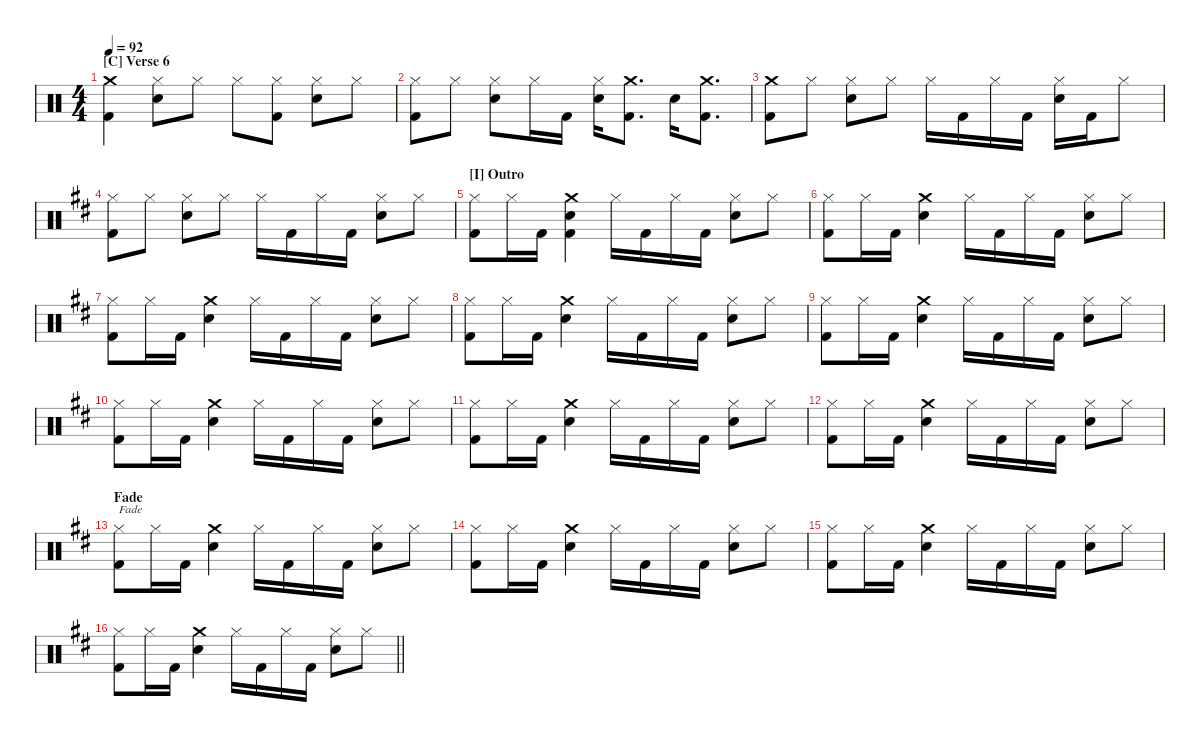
\hideDynamics
\bracketExtendMode nobrackets
\singleTrackTrackNamePolicy hidden
\multiTrackTrackNamePolicy hidden
\firstSystemTrackNameMode fullname
\firstSystemTrackNameOrientation horizontal
\otherSystemsTrackNameOrientation horizontal
\track ("Drumkit" "Drums") {instrument percussion}
\staff {score}
\articulation defaults
\ts (4 4)
\section ("C" "Verse 6")
\tempo 92
\clef neutral
\ks c
("Crash medium (hit)" "Kick (hit) 2").4{dy f beam Down} ("Hi-Hat (closed)" "Snare (hit) 2").8{beam Down} "Hi-Hat (closed)".8{beam Down} "Hi-Hat (closed)".8{beam Down} ("Hi-Hat (closed)" "Kick (hit) 2").8{beam Down} ("Hi-Hat (closed)" "Snare (hit) 2").8{beam Down} "Hi-Hat (closed)".8{beam Down} |
("Hi-Hat (closed)" "Kick (hit) 2").8{beam Down} "Hi-Hat (closed)".8{beam Down} ("Hi-Hat (closed)" "Snare (hit) 2").8{beam Down} "Hi-Hat (closed)".16{beam Down} "Kick (hit) 2".16{beam Down} ("Hi-Hat (closed)" "Snare (hit) 2").16{beam Down} ("Crash medium (hit)" "Kick (hit) 2").8{d beam Down} "Snare (hit) 2".16{beam Down} ("Crash medium (hit)" "Kick (hit) 2").8{d beam Down} |
("Crash medium (hit)" "Kick (hit) 2").8{beam Down} "Hi-Hat (closed)".8{beam Down} ("Hi-Hat (closed)" "Snare (hit) 2").8{beam Down} "Hi-Hat (closed)".8{beam Down} "Hi-Hat (closed)".16{beam Down} "Kick (hit) 2".16{beam Down} "Hi-Hat (closed)".16{beam Down} "Kick (hit) 2".16{beam Down} ("Hi-Hat (closed)" "Snare (hit) 2").16{beam Down} "Kick (hit) 2".16{beam Down} "Hi-Hat (closed)".8{beam Down} |
\ks d
("Hi-Hat (closed)"{acc forcenatural} "Kick (hit) 2"{acc forcenatural}).8{beam Down} "Hi-Hat (closed)"{acc forcenatural}.8{beam Down} ("Hi-Hat (closed)"{acc forcenatural} "Snare (hit) 2"{acc forcenatural}).8{beam Down} "Hi-Hat (closed)"{acc forcenatural}.8{beam Down} "Hi-Hat (closed)"{acc forcenatural}.16{beam Down} "Kick (hit) 2"{acc forcenatural}.16{beam Down} "Hi-Hat (closed)"{acc forcenatural}.16{beam Down} "Kick (hit) 2"{acc forcenatural}.16{beam Down} ("Hi-Hat (closed)"{acc forcenatural} "Snare (hit) 2"{acc forcenatural}).8{beam Down} "Hi-Hat (closed)"{acc forcenatural}.8{beam Down} |
\section ("I" "Outro")
("Hi-Hat (closed)"{acc forcenatural} "Kick (hit) 2"{acc forcenatural}).8{beam Down} "Hi-Hat (closed)"{acc forcenatural}.16{beam Down} "Kick (hit) 2"{acc forcenatural}.16{beam Down} ("Crash medium (hit)"{acc forcenatural} "Snare (hit) 2"{acc forcenatural} "Kick (hit) 2"{acc forcenatural}).4{beam Down} "Hi-Hat (closed)"{acc forcenatural}.16{beam Down} "Kick (hit) 2"{acc forcenatural}.16{beam Down} "Hi-Hat (closed)"{acc forcenatural}.16{beam Down} "Kick (hit) 2"{acc forcenatural}.16{beam Down} ("Hi-Hat (closed)"{acc forcenatural} "Snare (hit) 2"{acc forcenatural}).8{beam Down} "Hi-Hat (closed)"{acc forcenatural}.8{beam Down} |
("Hi-Hat (closed)"{acc forcenatural} "Kick (hit) 2"{acc forcenatural}).8{beam Down} "Hi-Hat (closed)"{acc forcenatural}.16{beam Down} "Kick (hit) 2"{acc forcenatural}.16{beam Down} ("Crash medium (hit)"{acc forcenatural} "Snare (hit) 2"{acc forcenatural}).4{beam Down} "Hi-Hat (closed)"{acc forcenatural}.16{beam Down} "Kick (hit) 2"{acc forcenatural}.16{beam Down} "Hi-Hat (closed)"{acc forcenatural}.16{beam Down} "Kick (hit) 2"{acc forcenatural}.16{beam Down} ("Hi-Hat (closed)"{acc forcenatural} "Snare (hit) 2"{acc forcenatural}).8{beam Down} "Hi-Hat (closed)"{acc forcenatural}.8{beam Down} |
("Hi-Hat (closed)"{acc forcenatural} "Kick (hit) 2"{acc forcenatural}).8{beam Down} "Hi-Hat (closed)"{acc forcenatural}.16{beam Down} "Kick (hit) 2"{acc forcenatural}.16{beam Down} ("Crash medium (hit)"{acc forcenatural} "Snare (hit) 2"{acc forcenatural}).4{beam Down} "Hi-Hat (closed)"{acc forcenatural}.16{beam Down} "Kick (hit) 2"{acc forcenatural}.16{beam Down} "Hi-Hat (closed)"{acc forcenatural}.16{beam Down} "Kick (hit) 2"{acc forcenatural}.16{beam Down} ("Hi-Hat (closed)"{acc forcenatural} "Snare (hit) 2"{acc forcenatural}).8{beam Down} "Hi-Hat (closed)"{acc forcenatural}.8{beam Down} |
("Hi-Hat (closed)"{acc forcenatural} "Kick (hit) 2"{acc forcenatural}).8{beam Down} "Hi-Hat (closed)"{acc forcenatural}.16{beam Down} "Kick (hit) 2"{acc forcenatural}.16{beam Down} ("Crash medium (hit)"{acc forcenatural} "Snare (hit) 2"{acc forcenatural}).4{beam Down} "Hi-Hat (closed)"{acc forcenatural}.16{beam Down} "Kick (hit) 2"{acc forcenatural}.16{beam Down} "Hi-Hat (closed)"{acc forcenatural}.16{beam Down} "Kick (hit) 2"{acc forcenatural}.16{beam Down} ("Hi-Hat (closed)"{acc forcenatural} "Snare (hit) 2"{acc forcenatural}).8{beam Down} "Hi-Hat (closed)"{acc forcenatural}.8{beam Down} |
("Hi-Hat (closed)"{acc forcenatural} "Kick (hit) 2"{acc forcenatural}).8{beam Down} "Hi-Hat (closed)"{acc forcenatural}.16{beam Down} "Kick (hit) 2"{acc forcenatural}.16{beam Down} ("Crash medium (hit)"{acc forcenatural} "Snare (hit) 2"{acc forcenatural}).4{beam Down} "Hi-Hat (closed)"{acc forcenatural}.16{beam Down} "Kick (hit) 2"{acc forcenatural}.16{beam Down} "Hi-Hat (closed)"{acc forcenatural}.16{beam Down} "Kick (hit) 2"{acc forcenatural}.16{beam Down} ("Hi-Hat (closed)"{acc forcenatural} "Snare (hit) 2"{acc forcenatural}).8{beam Down} "Hi-Hat (closed)"{acc forcenatural}.8{beam Down} |
("Hi-Hat (closed)"{acc forcenatural} "Kick (hit) 2"{acc forcenatural}).8{beam Down} "Hi-Hat (closed)"{acc forcenatural}.16{beam Down} "Kick (hit) 2"{acc forcenatural}.16{beam Down} ("Crash medium (hit)"{acc forcenatural} "Snare (hit) 2"{acc forcenatural}).4{beam Down} "Hi-Hat (closed)"{acc forcenatural}.16{beam Down} "Kick (hit) 2"{acc forcenatural}.16{beam Down} "Hi-Hat (closed)"{acc forcenatural}.16{beam Down} "Kick (hit) 2"{acc forcenatural}.16{beam Down} ("Hi-Hat (closed)"{acc forcenatural} "Snare (hit) 2"{acc forcenatural}).8{beam Down} "Hi-Hat (closed)"{acc forcenatural}.8{beam Down} |
("Hi-Hat (closed)"{acc forcenatural} "Kick (hit) 2"{acc forcenatural}).8{beam Down} "Hi-Hat (closed)"{acc forcenatural}.16{beam Down} "Kick (hit) 2"{acc forcenatural}.16{beam Down} ("Crash medium (hit)"{acc forcenatural} "Snare (hit) 2"{acc forcenatural}).4{beam Down} "Hi-Hat (closed)"{acc forcenatural}.16{beam Down} "Kick (hit) 2"{acc forcenatural}.16{beam Down} "Hi-Hat (closed)"{acc forcenatural}.16{beam Down} "Kick (hit) 2"{acc forcenatural}.16{beam Down} ("Hi-Hat (closed)"{acc forcenatural} "Snare (hit) 2"{acc forcenatural}).8{beam Down} "Hi-Hat (closed)"{acc forcenatural}.8{beam Down} |
("Hi-Hat (closed)"{acc forcenatural} "Kick (hit) 2"{acc forcenatural}).8{beam Down} "Hi-Hat (closed)"{acc forcenatural}.16{beam Down} "Kick (hit) 2"{acc forcenatural}.16{beam Down} ("Crash medium (hit)"{acc forcenatural} "Snare (hit) 2"{acc forcenatural}).4{beam Down} "Hi-Hat (closed)"{acc forcenatural}.16{beam Down} "Kick (hit) 2"{acc forcenatural}.16{beam Down} "Hi-Hat (closed)"{acc forcenatural}.16{beam Down} "Kick (hit) 2"{acc forcenatural}.16{beam Down} ("Hi-Hat (closed)"{acc forcenatural} "Snare (hit) 2"{acc forcenatural}).8{beam Down} "Hi-Hat (closed)"{acc forcenatural}.8{beam Down} |
\section ("" "Fade")
("Hi-Hat (closed)"{acc forcenatural} "Kick (hit) 2"{acc forcenatural}).8{txt "Fade" beam Down} "Hi-Hat (closed)"{acc forcenatural}.16{beam Down} "Kick (hit) 2"{acc forcenatural}.16{beam Down} ("Crash medium (hit)"{acc forcenatural} "Snare (hit) 2"{acc forcenatural}).4{beam Down} "Hi-Hat (closed)"{acc forcenatural}.16{beam Down} "Kick (hit) 2"{acc forcenatural}.16{beam Down} "Hi-Hat (closed)"{acc forcenatural}.16{beam Down} "Kick (hit) 2"{acc forcenatural}.16{beam Down} ("Hi-Hat (closed)"{acc forcenatural} "Snare (hit) 2"{acc forcenatural}).8{beam Down} "Hi-Hat (closed)"{acc forcenatural}.8{beam Down} |
("Hi-Hat (closed)"{acc forcenatural} "Kick (hit) 2"{acc forcenatural}).8{beam Down} "Hi-Hat (closed)"{acc forcenatural}.16{beam Down} "Kick (hit) 2"{acc forcenatural}.16{beam Down} ("Crash medium (hit)"{acc forcenatural} "Snare (hit) 2"{acc forcenatural}).4{beam Down} "Hi-Hat (closed)"{acc forcenatural}.16{beam Down} "Kick (hit) 2"{acc forcenatural}.16{beam Down} "Hi-Hat (closed)"{acc forcenatural}.16{beam Down} "Kick (hit) 2"{acc forcenatural}.16{beam Down} ("Hi-Hat (closed)"{acc forcenatural} "Snare (hit) 2"{acc forcenatural}).8{beam Down} "Hi-Hat (closed)"{acc forcenatural}.8{beam Down} |
("Hi-Hat (closed)"{acc forcenatural} "Kick (hit) 2"{acc forcenatural}).8{beam Down} "Hi-Hat (closed)"{acc forcenatural}.16{beam Down} "Kick (hit) 2"{acc forcenatural}.16{beam Down} ("Crash medium (hit)"{acc forcenatural} "Snare (hit) 2"{acc forcenatural}).4{beam Down} "Hi-Hat (closed)"{acc forcenatural}.16{dy mf beam Down} "Kick (hit) 2"{acc forcenatural}.16{beam Down} "Hi-Hat (closed)"{acc forcenatural}.16{beam Down} "Kick (hit) 2"{acc forcenatural}.16{beam Down} ("Hi-Hat (closed)"{acc forcenatural} "Snare (hit) 2"{acc forcenatural}).8{beam Down} "Hi-Hat (closed)"{acc forcenatural}.8{beam Down} |
\barLineRight lightlight
("Hi-Hat (closed)"{acc forcenatural} "Kick (hit) 2"{acc forcenatural}).8{dy mp beam Down} "Hi-Hat (closed)"{acc forcenatural}.16{beam Down} "Kick (hit) 2"{acc forcenatural}.16{beam Down} ("Crash medium (hit)"{acc forcenatural} "Snare (hit) 2"{acc forcenatural}).4{dy p beam Down} "Hi-Hat (closed)"{acc forcenatural}.16{beam Down} "Kick (hit) 2"{acc forcenatural}.16{beam Down} "Hi-Hat (closed)"{acc forcenatural}.16{dy pp beam Down} "Kick (hit) 2"{acc forcenatural}.16{beam Down} ("Hi-Hat (closed)"{acc forcenatural} "Snare (hit) 2"{acc forcenatural}).8{beam Down} "Hi-Hat (closed)"{acc forcenatural}.8{beam Down}
